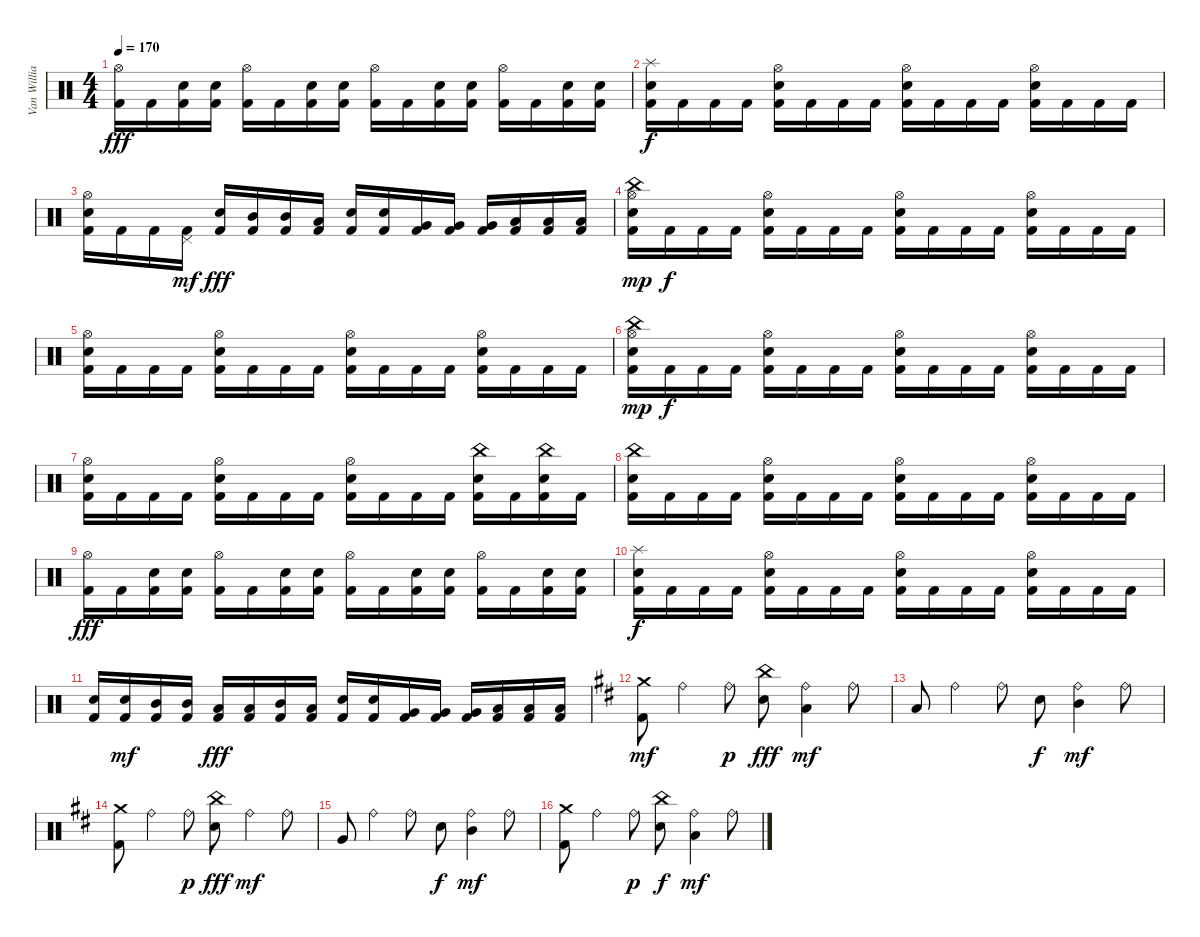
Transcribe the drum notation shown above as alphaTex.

\track ("Van Williams" "Van Willia") {instrument percussion}
\staff {score}
\articulation defaults
\ts (4 4)
\tempo 170
\clef neutral
\ks c
("Hi-Hat (open)" "Kick (hit) 2").16{dy fff} "Kick (hit) 2".16 ("Electric Snare (hit)" "Kick (hit) 2").16 ("Electric Snare (hit)" "Kick (hit) 2").16 ("Hi-Hat (open)" "Kick (hit) 2").16 "Kick (hit) 2".16 ("Electric Snare (hit)" "Kick (hit) 2").16 ("Electric Snare (hit)" "Kick (hit) 2").16 ("Hi-Hat (open)" "Kick (hit) 2").16 "Kick (hit) 2".16 ("Electric Snare (hit)" "Kick (hit) 2").16 ("Electric Snare (hit)" "Kick (hit) 2").16 ("Hi-Hat (open)" "Kick (hit) 2").16 "Kick (hit) 2".16 ("Electric Snare (hit)" "Kick (hit) 2").16 ("Electric Snare (hit)" "Kick (hit) 2").16 |
("Splash (hit)" "Electric Snare (hit)" "Kick (hit) 2").16{dy f} "Kick (hit) 2".16 "Kick (hit) 2".16 "Kick (hit) 2".16 ("Hi-Hat (open)" "Electric Snare (hit)" "Kick (hit) 2").16 "Kick (hit) 2".16 "Kick (hit) 2".16 "Kick (hit) 2".16 ("Hi-Hat (open)" "Electric Snare (hit)" "Kick (hit) 2").16 "Kick (hit) 2".16 "Kick (hit) 2".16 "Kick (hit) 2".16 ("Hi-Hat (open)" "Electric Snare (hit)" "Kick (hit) 2").16 "Kick (hit) 2".16 "Kick (hit) 2".16 "Kick (hit) 2".16 |
("Hi-Hat (open)" "Electric Snare (hit)" "Kick (hit) 2").16 "Kick (hit) 2".16 "Kick (hit) 2".16 ("Pedal Hi-Hat (hit)" "Kick (hit) 2").16{dy mf} ("Electric Snare (hit)" "Kick (hit) 2").16{dy fff} ("Mid Tom (hit)" "Kick (hit) 2").16 ("Mid Tom (hit)" "Kick (hit) 2").16 ("Low Tom (hit)" "Kick (hit) 2").16 ("Electric Snare (hit)" "Kick (hit) 2").16 ("Electric Snare (hit)" "Kick (hit) 2").16 ("Very Low Tom (hit)" "Kick (hit) 2").16 ("Very Low Tom (hit)" "Kick (hit) 2").16 ("Very Low Tom (hit)" "Kick (hit) 2").16 ("Low Floor Tom (hit)" "Kick (hit) 2").16 ("Low Floor Tom (hit)" "Kick (hit) 2").16 ("Low Floor Tom (hit)" "Kick (hit) 2").16 |
("Hi-Hat (open)" "China (hit)" "Electric Snare (hit)" "Kick (hit) 2").16{dy mp} "Kick (hit) 2".16{dy f} "Kick (hit) 2".16 "Kick (hit) 2".16 ("Hi-Hat (open)" "Electric Snare (hit)" "Kick (hit) 2").16 "Kick (hit) 2".16 "Kick (hit) 2".16 "Kick (hit) 2".16 ("Hi-Hat (open)" "Electric Snare (hit)" "Kick (hit) 2").16 "Kick (hit) 2".16 "Kick (hit) 2".16 "Kick (hit) 2".16 ("Hi-Hat (open)" "Electric Snare (hit)" "Kick (hit) 2").16 "Kick (hit) 2".16 "Kick (hit) 2".16 "Kick (hit) 2".16 |
("Hi-Hat (open)" "Electric Snare (hit)" "Kick (hit) 2").16 "Kick (hit) 2".16 "Kick (hit) 2".16 "Kick (hit) 2".16 ("Hi-Hat (open)" "Electric Snare (hit)" "Kick (hit) 2").16 "Kick (hit) 2".16 "Kick (hit) 2".16 "Kick (hit) 2".16 ("Hi-Hat (open)" "Electric Snare (hit)" "Kick (hit) 2").16 "Kick (hit) 2".16 "Kick (hit) 2".16 "Kick (hit) 2".16 ("Hi-Hat (open)" "Electric Snare (hit)" "Kick (hit) 2").16 "Kick (hit) 2".16 "Kick (hit) 2".16 "Kick (hit) 2".16 |
("Hi-Hat (open)" "China (hit)" "Electric Snare (hit)" "Kick (hit) 2").16{dy mp} "Kick (hit) 2".16{dy f} "Kick (hit) 2".16 "Kick (hit) 2".16 ("Hi-Hat (open)" "Electric Snare (hit)" "Kick (hit) 2").16 "Kick (hit) 2".16 "Kick (hit) 2".16 "Kick (hit) 2".16 ("Hi-Hat (open)" "Electric Snare (hit)" "Kick (hit) 2").16 "Kick (hit) 2".16 "Kick (hit) 2".16 "Kick (hit) 2".16 ("Hi-Hat (open)" "Electric Snare (hit)" "Kick (hit) 2").16 "Kick (hit) 2".16 "Kick (hit) 2".16 "Kick (hit) 2".16 |
("Hi-Hat (open)" "Electric Snare (hit)" "Kick (hit) 2").16 "Kick (hit) 2".16 "Kick (hit) 2".16 "Kick (hit) 2".16 ("Hi-Hat (open)" "Electric Snare (hit)" "Kick (hit) 2").16 "Kick (hit) 2".16 "Kick (hit) 2".16 "Kick (hit) 2".16 ("Hi-Hat (open)" "Electric Snare (hit)" "Kick (hit) 2").16 "Kick (hit) 2".16 "Kick (hit) 2".16 "Kick (hit) 2".16 ("China (hit)" "Electric Snare (hit)" "Kick (hit) 2").16 "Kick (hit) 2".16 ("China (hit)" "Electric Snare (hit)" "Kick (hit) 2").16 "Kick (hit) 2".16 |
("China (hit)" "Electric Snare (hit)" "Kick (hit) 2").16 "Kick (hit) 2".16 "Kick (hit) 2".16 "Kick (hit) 2".16 ("Hi-Hat (open)" "Electric Snare (hit)" "Kick (hit) 2").16 "Kick (hit) 2".16 "Kick (hit) 2".16 "Kick (hit) 2".16 ("Hi-Hat (open)" "Electric Snare (hit)" "Kick (hit) 2").16 "Kick (hit) 2".16 "Kick (hit) 2".16 "Kick (hit) 2".16 ("Hi-Hat (open)" "Electric Snare (hit)" "Kick (hit) 2").16 "Kick (hit) 2".16 "Kick (hit) 2".16 "Kick (hit) 2".16 |
("Hi-Hat (open)" "Kick (hit) 2").16{dy fff} "Kick (hit) 2".16 ("Electric Snare (hit)" "Kick (hit) 2").16 ("Electric Snare (hit)" "Kick (hit) 2").16 ("Hi-Hat (open)" "Kick (hit) 2").16 "Kick (hit) 2".16 ("Electric Snare (hit)" "Kick (hit) 2").16 ("Electric Snare (hit)" "Kick (hit) 2").16 ("Hi-Hat (open)" "Kick (hit) 2").16 "Kick (hit) 2".16 ("Electric Snare (hit)" "Kick (hit) 2").16 ("Electric Snare (hit)" "Kick (hit) 2").16 ("Hi-Hat (open)" "Kick (hit) 2").16 "Kick (hit) 2".16 ("Electric Snare (hit)" "Kick (hit) 2").16 ("Electric Snare (hit)" "Kick (hit) 2").16 |
("Splash (hit)" "Electric Snare (hit)" "Kick (hit) 2").16{dy f} "Kick (hit) 2".16 "Kick (hit) 2".16 "Kick (hit) 2".16 ("Hi-Hat (open)" "Electric Snare (hit)" "Kick (hit) 2").16 "Kick (hit) 2".16 "Kick (hit) 2".16 "Kick (hit) 2".16 ("Hi-Hat (open)" "Electric Snare (hit)" "Kick (hit) 2").16 "Kick (hit) 2".16 "Kick (hit) 2".16 "Kick (hit) 2".16 ("Hi-Hat (open)" "Electric Snare (hit)" "Kick (hit) 2").16 "Kick (hit) 2".16 "Kick (hit) 2".16 "Kick (hit) 2".16 |
("Electric Snare (hit)" "Kick (hit) 2").16 ("Electric Snare (hit)" "Kick (hit) 2").16{dy mf} ("Mid Tom (hit)" "Kick (hit) 2").16 ("Mid Tom (hit)" "Kick (hit) 2").16 ("Low Tom (hit)" "Kick (hit) 2").16{dy fff} ("Low Tom (hit)" "Kick (hit) 2").16 ("Mid Tom (hit)" "Kick (hit) 2").16 ("Low Tom (hit)" "Kick (hit) 2").16 ("Electric Snare (hit)" "Kick (hit) 2").16 ("Electric Snare (hit)" "Kick (hit) 2").16 ("Very Low Tom (hit)" "Kick (hit) 2").16 ("Very Low Tom (hit)" "Kick (hit) 2").16 ("Very Low Tom (hit)" "Kick (hit) 2").16 ("Low Floor Tom (hit)" "Kick (hit) 2").16 ("Low Floor Tom (hit)" "Kick (hit) 2").16 ("Low Floor Tom (hit)" "Kick (hit) 2").16 |
\ks d
("Crash medium (hit)" "Kick (hit) 2").8{dy mf} "Ride (bell)".4 "Ride (bell)".8{dy p} ("China (hit)" "Electric Snare (hit)").8{dy fff} ("Ride (bell)" "Low Tom (hit)").4{dy mf} "Ride (bell)".8 |
"Low Tom (hit)".8 "Ride (bell)".4 "Ride (bell)".8 "Electric Snare (hit)".8{dy f} ("Ride (bell)" "Mid Tom (hit)").4{dy mf} "Ride (bell)".8 |
("Crash medium (hit)" "Kick (hit) 2").8 "Ride (bell)".4 "Ride (bell)".8{dy p} ("China (hit)" "Electric Snare (hit)").8{dy fff} "Ride (bell)".4{dy mf} "Ride (bell)".8 |
"Very Low Tom (hit)".8 "Ride (bell)".4 "Ride (bell)".8 "Electric Snare (hit)".8{dy f} ("Ride (bell)" "Mid Tom (hit)").4{dy mf} "Ride (bell)".8 |
("Crash medium (hit)" "Kick (hit) 2").8 "Ride (bell)".4 "Ride (bell)".8{dy p} ("China (hit)" "Electric Snare (hit)").8{dy f} ("Ride (bell)" "Low Tom (hit)").4{dy mf} "Ride (bell)".8
